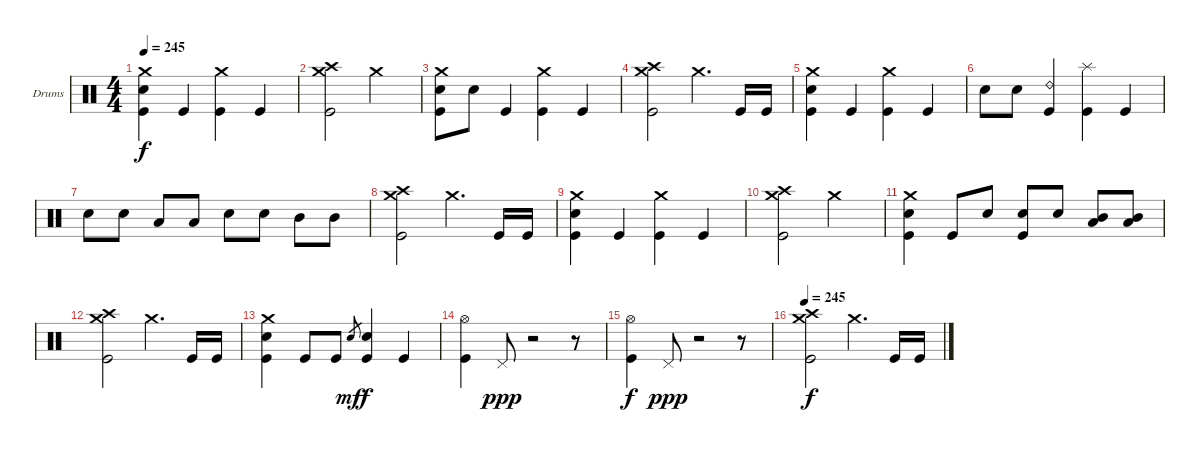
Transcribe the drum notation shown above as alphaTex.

\bracketExtendMode groupsimilarinstruments
\firstSystemTrackNameOrientation horizontal
\otherSystemsTrackNameOrientation horizontal
\track ("Drumkit" "Drums") {instrument percussion}
\staff {score}
\articulation defaults
\ts (4 4)
\tempo 245
\clef neutral
\ks c
("Crash medium (hit)" "Snare (hit) 2" "Kick (hit)").4{dy f} "Kick (hit)".4 ("Crash medium (hit)" "Kick (hit)").4 "Kick (hit)".4 |
("Crash high (hit)" "Crash medium (hit)" "Kick (hit)").2 "Crash medium (hit)".2 |
("Crash medium (hit)" "Snare (hit) 2" "Kick (hit)").8 "Snare (hit) 2".8 "Kick (hit)".4 ("Crash medium (hit)" "Kick (hit)").4 "Kick (hit)".4 |
("Crash high (hit)" "Crash medium (hit)" "Kick (hit)").2 "Crash medium (hit)".4{d} "Kick (hit)".16 "Kick (hit)".16 |
("Crash medium (hit)" "Snare (hit) 2" "Kick (hit)").4 "Kick (hit)".4 ("Crash medium (hit)" "Kick (hit)").4 "Kick (hit)".4 |
"Snare (hit) 2".8 "Snare (hit) 2".8 ("Ride (bell) 2" "Kick (hit)").4 ("Splash (hit)" "Kick (hit)").4 "Kick (hit)".4 |
"Snare (hit) 2".8 "Snare (hit) 2".8 "Low Tom (hit)".8 "Low Tom (hit)".8 "Snare (hit) 2".8 "Snare (hit) 2".8 "Mid Tom (hit)".8 "Mid Tom (hit)".8 |
("Crash high (hit)" "Crash medium (hit)" "Kick (hit)").2 "Crash medium (hit)".4{d} "Kick (hit)".16 "Kick (hit)".16 |
("Crash medium (hit)" "Snare (hit) 2" "Kick (hit)").4 "Kick (hit)".4 ("Crash medium (hit)" "Kick (hit)").4 "Kick (hit)".4 |
("Crash high (hit)" "Crash medium (hit)" "Kick (hit)").2 "Crash medium (hit)".2 |
("Crash medium (hit)" "Snare (hit) 2" "Kick (hit)").4 "Kick (hit)".8 "Snare (hit) 2".8 ("Snare (hit) 2" "Kick (hit)").8 "Snare (hit) 2".8 ("Low Tom (hit)" "Mid Tom (hit)").8 ("Low Tom (hit)" "Mid Tom (hit)").8 |
("Crash high (hit)" "Crash medium (hit)" "Kick (hit)").2 "Crash medium (hit)".4{d} "Kick (hit)".16 "Kick (hit)".16 |
("Crash medium (hit)" "Snare (hit) 2" "Kick (hit)").4 "Kick (hit)".8 "Kick (hit)".8 "Snare (hit) 2".8{gr dy mf} ("Snare (hit) 2" "Kick (hit)").4{dy f} "Kick (hit)".4 |
("Hi-Hat (open)" "Kick (hit)").4 "Pedal Hi-Hat (hit)".8{dy ppp} r.2 r.8 |
("Hi-Hat (open)" "Kick (hit)").4{dy f} "Pedal Hi-Hat (hit)".8{dy ppp} r.2 r.8 |
\tempo 245
("Crash high (hit)" "Crash medium (hit)" "Kick (hit)").2{dy f} "Crash medium (hit)".4{d} "Kick (hit)".16 "Kick (hit)".16
